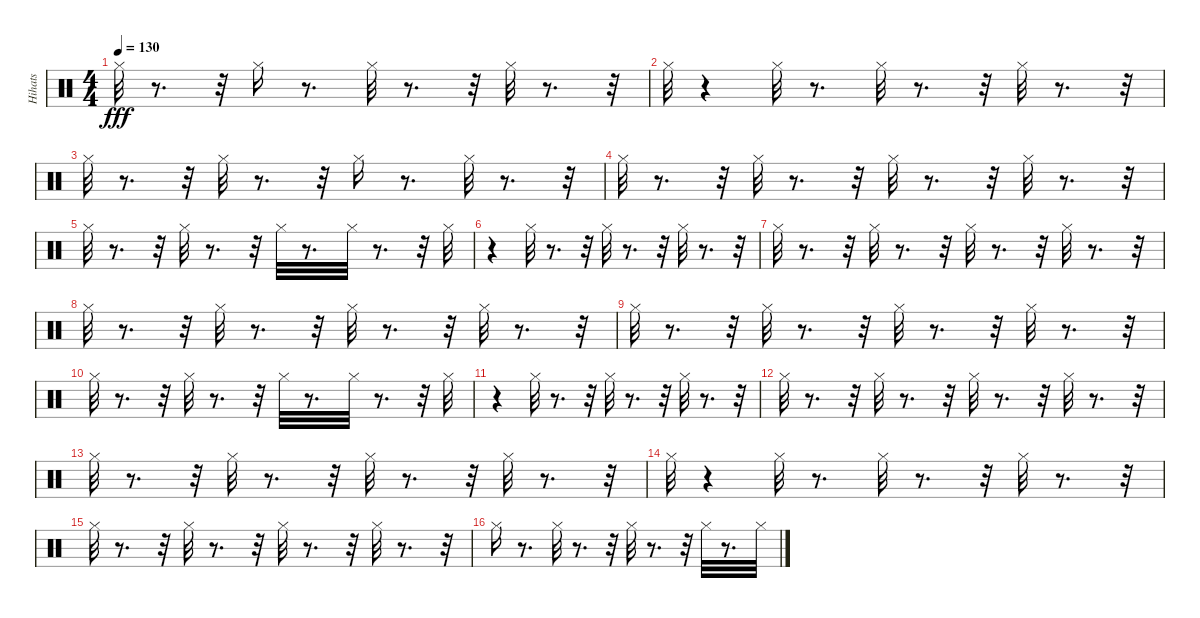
\track ("Hihats" "Hihats") {instrument percussion}
\staff {score}
\articulation defaults
\ts (4 4)
\tempo 130
\clef neutral
\ks c "Hi-Hat (closed)".32{dy fff}
r.8{d} r.32 "Hi-Hat (closed)".16 r.8{d} "Hi-Hat (closed)".32 r.8{d} r.32 "Hi-Hat (closed)".32 r.8{d} r.32 |
"Hi-Hat (closed)".32 r.4 "Hi-Hat (closed)".32 r.8{d} "Hi-Hat (closed)".32 r.8{d} r.32 "Hi-Hat (closed)".32 r.8{d} r.32 |
"Hi-Hat (closed)".32 r.8{d} r.32 "Hi-Hat (closed)".32 r.8{d} r.32 "Hi-Hat (closed)".16 r.8{d} "Hi-Hat (closed)".32 r.8{d} r.32 |
"Hi-Hat (closed)".32 r.8{d} r.32 "Hi-Hat (closed)".32 r.8{d} r.32 "Hi-Hat (closed)".32 r.8{d} r.32 "Hi-Hat (closed)".32 r.8{d} r.32 |
"Hi-Hat (closed)".32 r.8{d} r.32 "Hi-Hat (closed)".32 r.8{d} r.32 "Hi-Hat (closed)".32 r.8{d} "Hi-Hat (closed)".32 r.8{d} r.32 "Hi-Hat (closed)".32 |
r.4 "Hi-Hat (closed)".32 r.8{d} r.32 "Hi-Hat (closed)".32 r.8{d} r.32 "Hi-Hat (closed)".32 r.8{d} r.32 |
"Hi-Hat (closed)".32 r.8{d} r.32 "Hi-Hat (closed)".32 r.8{d} r.32 "Hi-Hat (closed)".32 r.8{d} r.32 "Hi-Hat (closed)".32 r.8{d} r.32 |
"Hi-Hat (closed)".32 r.8{d} r.32 "Hi-Hat (closed)".32 r.8{d} r.32 "Hi-Hat (closed)".32 r.8{d} r.32 "Hi-Hat (closed)".32 r.8{d} r.32 |
"Hi-Hat (closed)".32 r.8{d} r.32 "Hi-Hat (closed)".32 r.8{d} r.32 "Hi-Hat (closed)".32 r.8{d} r.32 "Hi-Hat (closed)".32 r.8{d} r.32 |
"Hi-Hat (closed)".32 r.8{d} r.32 "Hi-Hat (closed)".32 r.8{d} r.32 "Hi-Hat (closed)".32 r.8{d} "Hi-Hat (closed)".32 r.8{d} r.32 "Hi-Hat (closed)".32 |
r.4 "Hi-Hat (closed)".32 r.8{d} r.32 "Hi-Hat (closed)".32 r.8{d} r.32 "Hi-Hat (closed)".32 r.8{d} r.32 |
"Hi-Hat (closed)".32 r.8{d} r.32 "Hi-Hat (closed)".32 r.8{d} r.32 "Hi-Hat (closed)".32 r.8{d} r.32 "Hi-Hat (closed)".32 r.8{d} r.32 |
"Hi-Hat (closed)".32 r.8{d} r.32 "Hi-Hat (closed)".32 r.8{d} r.32 "Hi-Hat (closed)".32 r.8{d} r.32 "Hi-Hat (closed)".32 r.8{d} r.32 |
"Hi-Hat (closed)".32 r.4 "Hi-Hat (closed)".32 r.8{d} "Hi-Hat (closed)".32 r.8{d} r.32 "Hi-Hat (closed)".32 r.8{d} r.32 |
"Hi-Hat (closed)".32 r.8{d} r.32 "Hi-Hat (closed)".32 r.8{d} r.32 "Hi-Hat (closed)".32 r.8{d} r.32 "Hi-Hat (closed)".32 r.8{d} r.32 |
"Hi-Hat (closed)".16 r.8{d} "Hi-Hat (closed)".32 r.8{d} r.32 "Hi-Hat (closed)".32 r.8{d} r.32 "Hi-Hat (closed)".32 r.8{d} "Hi-Hat (closed)".32
